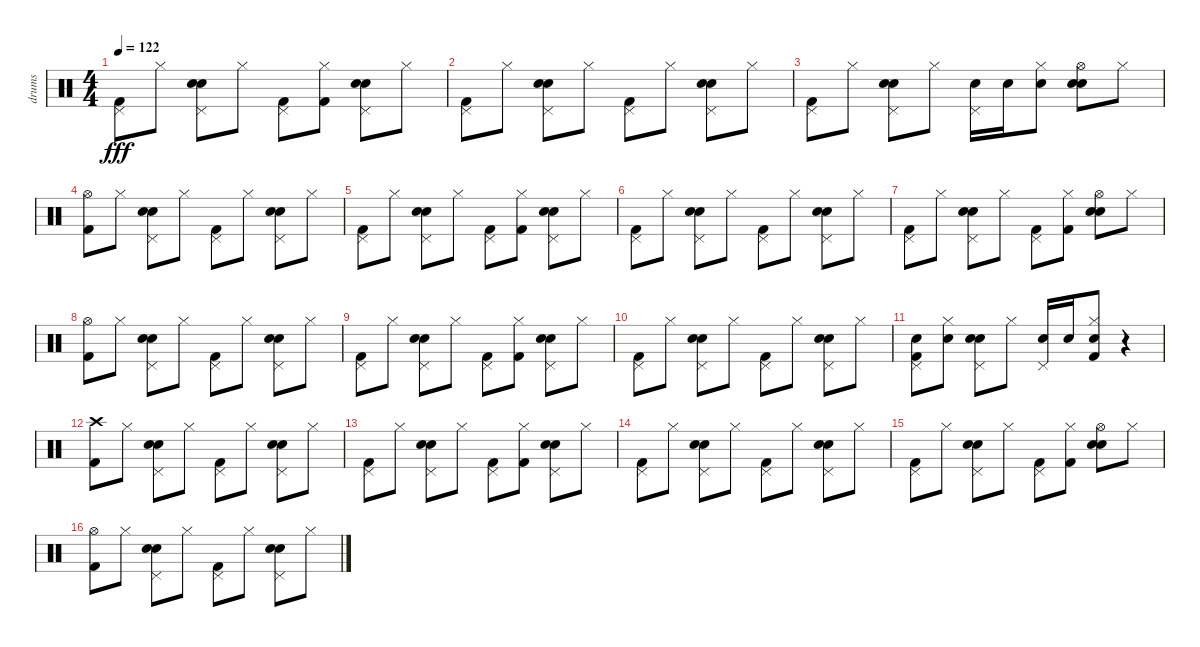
\track ("drums" "drums") {instrument percussion}
\staff {score}
\articulation defaults
\ts (4 4)
\tempo 122
\clef neutral
\ks c
("Pedal Hi-Hat (hit)" "Kick (hit) 2").8{dy fff} "Hi-Hat (closed)".8 ("Hand Clap (hit)" "Pedal Hi-Hat (hit)" "Snare (hit) 2").8 "Hi-Hat (closed)".8 ("Pedal Hi-Hat (hit)" "Kick (hit) 2").8 ("Hi-Hat (closed)" "Kick (hit) 2").8 ("Hand Clap (hit)" "Pedal Hi-Hat (hit)" "Snare (hit) 2").8 "Hi-Hat (closed)".8 |
("Pedal Hi-Hat (hit)" "Kick (hit) 2").8 "Hi-Hat (closed)".8 ("Hand Clap (hit)" "Pedal Hi-Hat (hit)" "Snare (hit) 2").8 "Hi-Hat (closed)".8 ("Pedal Hi-Hat (hit)" "Kick (hit) 2").8 "Hi-Hat (closed)".8 ("Hand Clap (hit)" "Pedal Hi-Hat (hit)" "Snare (hit) 2").8 "Hi-Hat (closed)".8 |
("Pedal Hi-Hat (hit)" "Kick (hit) 2").8 "Hi-Hat (closed)".8 ("Hand Clap (hit)" "Pedal Hi-Hat (hit)" "Snare (hit) 2").8 "Hi-Hat (closed)".8 ("Snare (hit) 2" "Pedal Hi-Hat (hit)").16 "Snare (hit) 2".16 ("Snare (hit) 2" "Hi-Hat (closed)").8 ("Hand Clap (hit)" "Hi-Hat (open)" "Snare (hit) 2").8 "Hi-Hat (closed)".8 |
("Hi-Hat (open)" "Kick (hit) 2").8 "Hi-Hat (closed)".8 ("Hand Clap (hit)" "Pedal Hi-Hat (hit)" "Snare (hit) 2").8 "Hi-Hat (closed)".8 ("Pedal Hi-Hat (hit)" "Kick (hit) 2").8 "Hi-Hat (closed)".8 ("Hand Clap (hit)" "Pedal Hi-Hat (hit)" "Snare (hit) 2").8 "Hi-Hat (closed)".8 |
("Pedal Hi-Hat (hit)" "Kick (hit) 2").8 "Hi-Hat (closed)".8 ("Hand Clap (hit)" "Pedal Hi-Hat (hit)" "Snare (hit) 2").8 "Hi-Hat (closed)".8 ("Pedal Hi-Hat (hit)" "Kick (hit) 2").8 ("Hi-Hat (closed)" "Kick (hit) 2").8 ("Hand Clap (hit)" "Pedal Hi-Hat (hit)" "Snare (hit) 2").8 "Hi-Hat (closed)".8 |
("Pedal Hi-Hat (hit)" "Kick (hit) 2").8 "Hi-Hat (closed)".8 ("Hand Clap (hit)" "Pedal Hi-Hat (hit)" "Snare (hit) 2").8 "Hi-Hat (closed)".8 ("Pedal Hi-Hat (hit)" "Kick (hit) 2").8 "Hi-Hat (closed)".8 ("Hand Clap (hit)" "Pedal Hi-Hat (hit)" "Snare (hit) 2").8 "Hi-Hat (closed)".8 |
("Pedal Hi-Hat (hit)" "Kick (hit) 2").8 "Hi-Hat (closed)".8 ("Hand Clap (hit)" "Pedal Hi-Hat (hit)" "Snare (hit) 2").8 "Hi-Hat (closed)".8 ("Kick (hit) 2" "Pedal Hi-Hat (hit)").8 ("Kick (hit) 2" "Hi-Hat (closed)").8 ("Hand Clap (hit)" "Hi-Hat (open)" "Snare (hit) 2").8 "Hi-Hat (closed)".8 |
("Hi-Hat (open)" "Kick (hit) 2").8 "Hi-Hat (closed)".8 ("Hand Clap (hit)" "Pedal Hi-Hat (hit)" "Snare (hit) 2").8 "Hi-Hat (closed)".8 ("Pedal Hi-Hat (hit)" "Kick (hit) 2").8 "Hi-Hat (closed)".8 ("Hand Clap (hit)" "Pedal Hi-Hat (hit)" "Snare (hit) 2").8 "Hi-Hat (closed)".8 |
("Pedal Hi-Hat (hit)" "Kick (hit) 2").8 "Hi-Hat (closed)".8 ("Hand Clap (hit)" "Pedal Hi-Hat (hit)" "Snare (hit) 2").8 "Hi-Hat (closed)".8 ("Pedal Hi-Hat (hit)" "Kick (hit) 2").8 ("Hi-Hat (closed)" "Kick (hit) 2").8 ("Hand Clap (hit)" "Pedal Hi-Hat (hit)" "Snare (hit) 2").8 "Hi-Hat (closed)".8 |
("Pedal Hi-Hat (hit)" "Kick (hit) 2").8 "Hi-Hat (closed)".8 ("Hand Clap (hit)" "Pedal Hi-Hat (hit)" "Snare (hit) 2").8 "Hi-Hat (closed)".8 ("Pedal Hi-Hat (hit)" "Kick (hit) 2").8 "Hi-Hat (closed)".8 ("Hand Clap (hit)" "Pedal Hi-Hat (hit)" "Snare (hit) 2").8 "Hi-Hat (closed)".8 |
("Snare (hit) 2" "Kick (hit) 2" "Pedal Hi-Hat (hit)").8 ("Snare (hit) 2" "Hi-Hat (closed)").8 ("Hand Clap (hit)" "Pedal Hi-Hat (hit)" "Snare (hit) 2").8 "Hi-Hat (closed)".8 ("Snare (hit) 2" "Pedal Hi-Hat (hit)").16 "Snare (hit) 2".16 ("Kick (hit) 2" "Snare (hit) 2" "Hi-Hat (closed)").8 r.4 |
("Crash high (hit)" "Kick (hit) 2").8 "Hi-Hat (closed)".8 ("Hand Clap (hit)" "Pedal Hi-Hat (hit)" "Snare (hit) 2").8 "Hi-Hat (closed)".8 ("Pedal Hi-Hat (hit)" "Kick (hit) 2").8 "Hi-Hat (closed)".8 ("Hand Clap (hit)" "Pedal Hi-Hat (hit)" "Snare (hit) 2").8 "Hi-Hat (closed)".8 |
("Pedal Hi-Hat (hit)" "Kick (hit) 2").8 "Hi-Hat (closed)".8 ("Hand Clap (hit)" "Pedal Hi-Hat (hit)" "Snare (hit) 2").8 "Hi-Hat (closed)".8 ("Pedal Hi-Hat (hit)" "Kick (hit) 2").8 ("Hi-Hat (closed)" "Kick (hit) 2").8 ("Hand Clap (hit)" "Pedal Hi-Hat (hit)" "Snare (hit) 2").8 "Hi-Hat (closed)".8 |
("Pedal Hi-Hat (hit)" "Kick (hit) 2").8 "Hi-Hat (closed)".8 ("Hand Clap (hit)" "Pedal Hi-Hat (hit)" "Snare (hit) 2").8 "Hi-Hat (closed)".8 ("Pedal Hi-Hat (hit)" "Kick (hit) 2").8 "Hi-Hat (closed)".8 ("Hand Clap (hit)" "Pedal Hi-Hat (hit)" "Snare (hit) 2").8 "Hi-Hat (closed)".8 |
("Pedal Hi-Hat (hit)" "Kick (hit) 2").8 "Hi-Hat (closed)".8 ("Hand Clap (hit)" "Pedal Hi-Hat (hit)" "Snare (hit) 2").8 "Hi-Hat (closed)".8 ("Kick (hit) 2" "Pedal Hi-Hat (hit)").8 ("Kick (hit) 2" "Hi-Hat (closed)").8 ("Hand Clap (hit)" "Hi-Hat (open)" "Snare (hit) 2").8 "Hi-Hat (closed)".8 |
("Hi-Hat (open)" "Kick (hit) 2").8 "Hi-Hat (closed)".8 ("Hand Clap (hit)" "Pedal Hi-Hat (hit)" "Snare (hit) 2").8 "Hi-Hat (closed)".8 ("Pedal Hi-Hat (hit)" "Kick (hit) 2").8 "Hi-Hat (closed)".8 ("Hand Clap (hit)" "Pedal Hi-Hat (hit)" "Snare (hit) 2").8 "Hi-Hat (closed)".8
